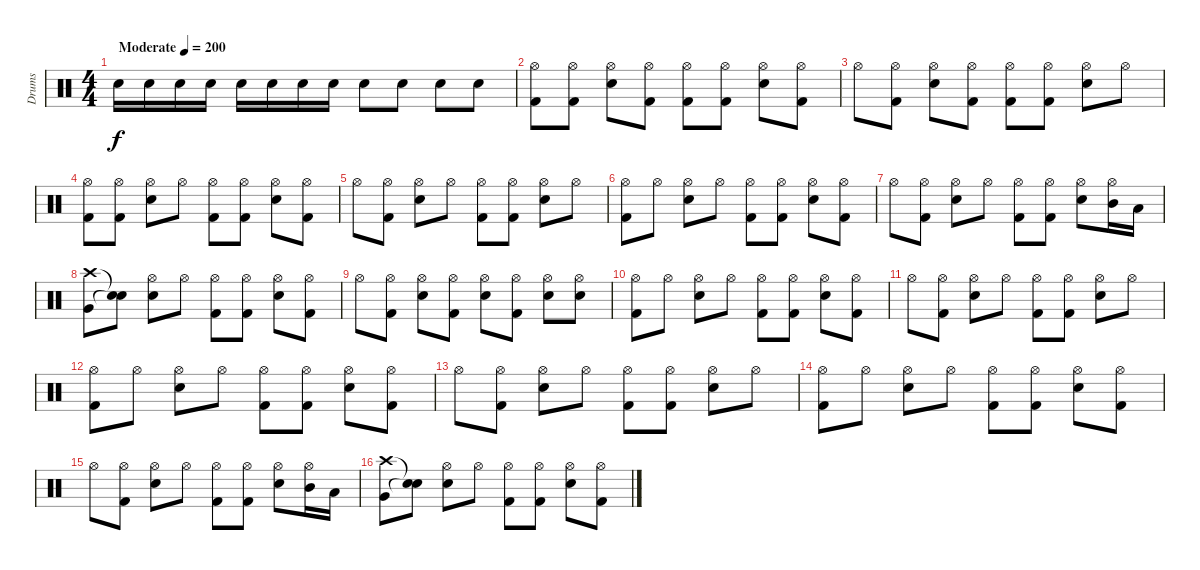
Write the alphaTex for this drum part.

\track ("Drums" "Drums") {instrument percussion}
\staff {score}
\articulation defaults
\ts (4 4)
\tempo (200 "Moderate")
\clef neutral
\ks c "Electric Snare (hit)".16{dy f} "Electric Snare (hit)".16 "Electric Snare (hit)".16 "Electric Snare (hit)".16 "Electric Snare (hit)".16 "Electric Snare (hit)".16 "Electric Snare (hit)".16 "Electric Snare (hit)".16 "Electric Snare (hit)".8 "Electric Snare (hit)".8 "Electric Snare (hit)".8 "Electric Snare (hit)".8
|
("Hi-Hat (open)" "Kick (hit) 2").8 ("Hi-Hat (open)" "Kick (hit) 2").8 ("Hi-Hat (open)" "Electric Snare (hit)").8 ("Hi-Hat (open)" "Kick (hit) 2").8 ("Hi-Hat (open)" "Kick (hit) 2").8 ("Hi-Hat (open)" "Kick (hit) 2").8 ("Hi-Hat (open)" "Electric Snare (hit)").8 ("Hi-Hat (open)" "Kick (hit) 2").8 |
"Hi-Hat (open)".8 ("Hi-Hat (open)" "Kick (hit) 2").8 ("Hi-Hat (open)" "Electric Snare (hit)").8 ("Hi-Hat (open)" "Kick (hit) 2").8 ("Hi-Hat (open)" "Kick (hit) 2").8 ("Hi-Hat (open)" "Kick (hit) 2").8 ("Hi-Hat (open)" "Electric Snare (hit)").8 "Hi-Hat (open)".8 |
("Hi-Hat (open)" "Kick (hit) 2").8 ("Hi-Hat (open)" "Kick (hit) 2").8 ("Hi-Hat (open)" "Electric Snare (hit)").8 "Hi-Hat (open)".8 ("Hi-Hat (open)" "Kick (hit) 2").8 ("Hi-Hat (open)" "Kick (hit) 2").8 ("Hi-Hat (open)" "Electric Snare (hit)").8 ("Hi-Hat (open)" "Kick (hit) 2").8 |
"Hi-Hat (open)".8 ("Hi-Hat (open)" "Kick (hit) 2").8 ("Hi-Hat (open)" "Electric Snare (hit)").8 "Hi-Hat (open)".8 ("Hi-Hat (open)" "Kick (hit) 2").8 ("Hi-Hat (open)" "Kick (hit) 2").8 ("Hi-Hat (open)" "Electric Snare (hit)").8 "Hi-Hat (open)".8 |
("Hi-Hat (open)" "Kick (hit) 2").8 "Hi-Hat (open)".8 ("Hi-Hat (open)" "Electric Snare (hit)").8 "Hi-Hat (open)".8 ("Hi-Hat (open)" "Kick (hit) 2").8 ("Hi-Hat (open)" "Kick (hit) 2").8 ("Hi-Hat (open)" "Electric Snare (hit)").8 ("Hi-Hat (open)" "Kick (hit) 2").8 |
"Hi-Hat (open)".8 ("Hi-Hat (open)" "Kick (hit) 2").8 ("Hi-Hat (open)" "Electric Snare (hit)").8 "Hi-Hat (open)".8 ("Hi-Hat (open)" "Kick (hit) 2").8 ("Hi-Hat (open)" "Kick (hit) 2").8 ("Hi-Hat (open)" "Electric Snare (hit)").8 ("Hi-Hat (open)" "Mid Tom (hit)").16 "Low Tom (hit)".16 |
("Crash high (hit)" "Very Low Tom (hit)").8 ("Snare (hit)"{t} "Snare (hit)"{t}).8 ("Hi-Hat (open)" "Electric Snare (hit)").8 "Hi-Hat (open)".8 ("Hi-Hat (open)" "Kick (hit) 2").8 ("Hi-Hat (open)" "Kick (hit) 2").8 ("Hi-Hat (open)" "Electric Snare (hit)").8 ("Hi-Hat (open)" "Kick (hit) 2").8 |
"Hi-Hat (open)".8 ("Hi-Hat (open)" "Kick (hit) 2").8 ("Hi-Hat (open)" "Electric Snare (hit)").8 ("Hi-Hat (open)" "Kick (hit) 2").8 ("Hi-Hat (open)" "Electric Snare (hit)").8 ("Hi-Hat (open)" "Kick (hit) 2").8 ("Hi-Hat (open)" "Electric Snare (hit)").8 ("Hi-Hat (open)" "Electric Snare (hit)").8 |
("Hi-Hat (open)" "Kick (hit) 2").8 "Hi-Hat (open)".8 ("Hi-Hat (open)" "Electric Snare (hit)").8 "Hi-Hat (open)".8 ("Hi-Hat (open)" "Kick (hit) 2").8 ("Hi-Hat (open)" "Kick (hit) 2").8 ("Hi-Hat (open)" "Electric Snare (hit)").8 ("Hi-Hat (open)" "Kick (hit) 2").8 |
"Hi-Hat (open)".8 ("Hi-Hat (open)" "Kick (hit) 2").8 ("Hi-Hat (open)" "Electric Snare (hit)").8 "Hi-Hat (open)".8 ("Hi-Hat (open)" "Kick (hit) 2").8 ("Hi-Hat (open)" "Kick (hit) 2").8 ("Hi-Hat (open)" "Electric Snare (hit)").8 "Hi-Hat (open)".8 |
("Hi-Hat (open)" "Kick (hit) 2").8 "Hi-Hat (open)".8 ("Hi-Hat (open)" "Electric Snare (hit)").8 "Hi-Hat (open)".8 ("Hi-Hat (open)" "Kick (hit) 2").8 ("Hi-Hat (open)" "Kick (hit) 2").8 ("Hi-Hat (open)" "Electric Snare (hit)").8 ("Hi-Hat (open)" "Kick (hit) 2").8 |
"Hi-Hat (open)".8 ("Hi-Hat (open)" "Kick (hit) 2").8 ("Hi-Hat (open)" "Electric Snare (hit)").8 "Hi-Hat (open)".8 ("Hi-Hat (open)" "Kick (hit) 2").8 ("Hi-Hat (open)" "Kick (hit) 2").8 ("Hi-Hat (open)" "Electric Snare (hit)").8 "Hi-Hat (open)".8 |
("Hi-Hat (open)" "Kick (hit) 2").8 "Hi-Hat (open)".8 ("Hi-Hat (open)" "Electric Snare (hit)").8 "Hi-Hat (open)".8 ("Hi-Hat (open)" "Kick (hit) 2").8 ("Hi-Hat (open)" "Kick (hit) 2").8 ("Hi-Hat (open)" "Electric Snare (hit)").8 ("Hi-Hat (open)" "Kick (hit) 2").8 |
"Hi-Hat (open)".8 ("Hi-Hat (open)" "Kick (hit) 2").8 ("Hi-Hat (open)" "Electric Snare (hit)").8 "Hi-Hat (open)".8 ("Hi-Hat (open)" "Kick (hit) 2").8 ("Hi-Hat (open)" "Kick (hit) 2").8 ("Hi-Hat (open)" "Electric Snare (hit)").8 ("Hi-Hat (open)" "Mid Tom (hit)").16 "Low Tom (hit)".16 |
("Crash high (hit)" "Very Low Tom (hit)").8 ("Snare (hit)"{t} "Snare (hit)"{t}).8 ("Hi-Hat (open)" "Electric Snare (hit)").8 "Hi-Hat (open)".8 ("Hi-Hat (open)" "Kick (hit) 2").8 ("Hi-Hat (open)" "Kick (hit) 2").8 ("Hi-Hat (open)" "Electric Snare (hit)").8 ("Hi-Hat (open)" "Kick (hit) 2").8
